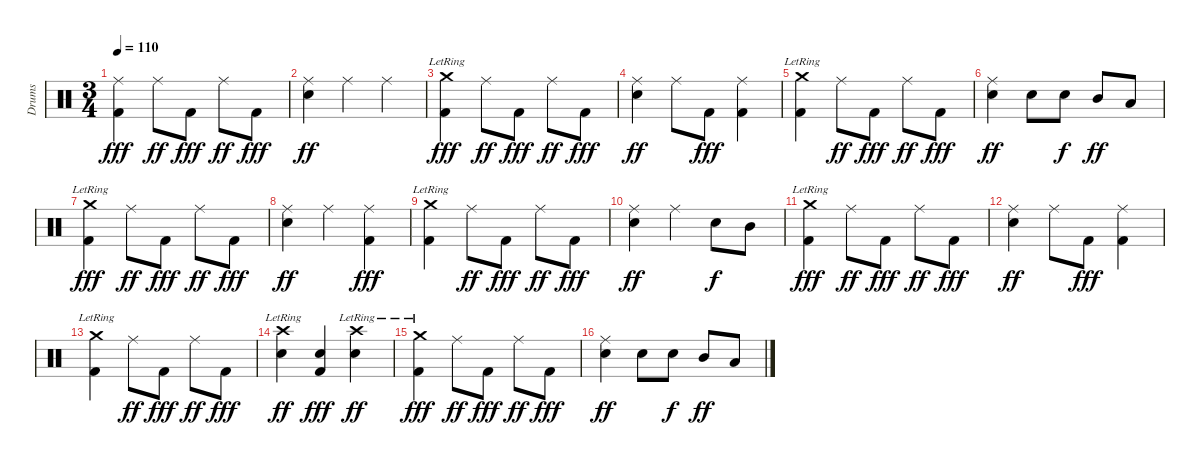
\track ("Drums" "Drums") {instrument percussion}
\staff {score}
\articulation defaults
\ts (3 4)
\tempo 110
\clef neutral
\ks c
("Ride (middle)" "Kick (hit) 2").4{dy fff} "Ride (middle)".8{dy ff} "Kick (hit) 2".8{dy fff} "Ride (middle)".8{dy ff} "Kick (hit) 2".8{dy fff} |
("Ride (middle)" "Snare (hit) 2").4{dy ff} "Ride (middle)".4 "Ride (middle)".4 |
("Crash medium (hit)"{lr} "Kick (hit) 2").4{dy fff} "Ride (middle)".8{dy ff} "Kick (hit) 2".8{dy fff} "Ride (middle)".8{dy ff} "Kick (hit) 2".8{dy fff} |
("Ride (middle)" "Snare (hit) 2").4{dy ff} "Ride (middle)".8 "Kick (hit) 2".8{dy fff} ("Ride (middle)" "Kick (hit) 2").4 |
("Crash medium (hit)"{lr} "Kick (hit) 2").4 "Ride (middle)".8{dy ff} "Kick (hit) 2".8{dy fff} "Ride (middle)".8{dy ff} "Kick (hit) 2".8{dy fff} |
("Ride (middle)" "Snare (hit) 2").4{dy ff} "Snare (hit) 2".8 "Snare (hit) 2".8{dy f} "Mid Tom (hit)".8{dy ff} "Low Tom (hit)".8 |
("Crash medium (hit)"{lr} "Kick (hit) 2").4{dy fff} "Ride (middle)".8{dy ff} "Kick (hit) 2".8{dy fff} "Ride (middle)".8{dy ff} "Kick (hit) 2".8{dy fff} |
("Ride (middle)" "Snare (hit) 2").4{dy ff} "Ride (middle)".4 ("Ride (middle)" "Kick (hit) 2").4{dy fff} |
("Crash medium (hit)"{lr} "Kick (hit) 2").4 "Ride (middle)".8{dy ff} "Kick (hit) 2".8{dy fff} "Ride (middle)".8{dy ff} "Kick (hit) 2".8{dy fff} |
("Ride (middle)" "Snare (hit) 2").4{dy ff} "Ride (middle)".4 "Snare (hit) 2".8{dy f} "Mid Tom (hit)".8 |
("Crash medium (hit)"{lr} "Kick (hit) 2").4{dy fff} "Ride (middle)".8{dy ff} "Kick (hit) 2".8{dy fff} "Ride (middle)".8{dy ff} "Kick (hit) 2".8{dy fff} |
("Ride (middle)" "Snare (hit) 2").4{dy ff} "Ride (middle)".8 "Kick (hit) 2".8{dy fff} ("Ride (middle)" "Kick (hit) 2").4 |
("Crash medium (hit)"{lr} "Kick (hit) 2").4 "Ride (middle)".8{dy ff} "Kick (hit) 2".8{dy fff} "Ride (middle)".8{dy ff} "Kick (hit) 2".8{dy fff} |
("Crash high (hit)"{lr} "Snare (hit) 2").4{dy ff} ("Snare (hit) 2" "Kick (hit) 2").4{dy fff} ("Crash high (hit)"{lr} "Snare (hit) 2").4{dy ff} |
("Crash medium (hit)"{lr} "Kick (hit) 2").4{dy fff} "Ride (middle)".8{dy ff} "Kick (hit) 2".8{dy fff} "Ride (middle)".8{dy ff} "Kick (hit) 2".8{dy fff} |
("Ride (middle)" "Snare (hit) 2").4{dy ff} "Snare (hit) 2".8 "Snare (hit) 2".8{dy f} "Mid Tom (hit)".8{dy ff} "Low Tom (hit)".8
